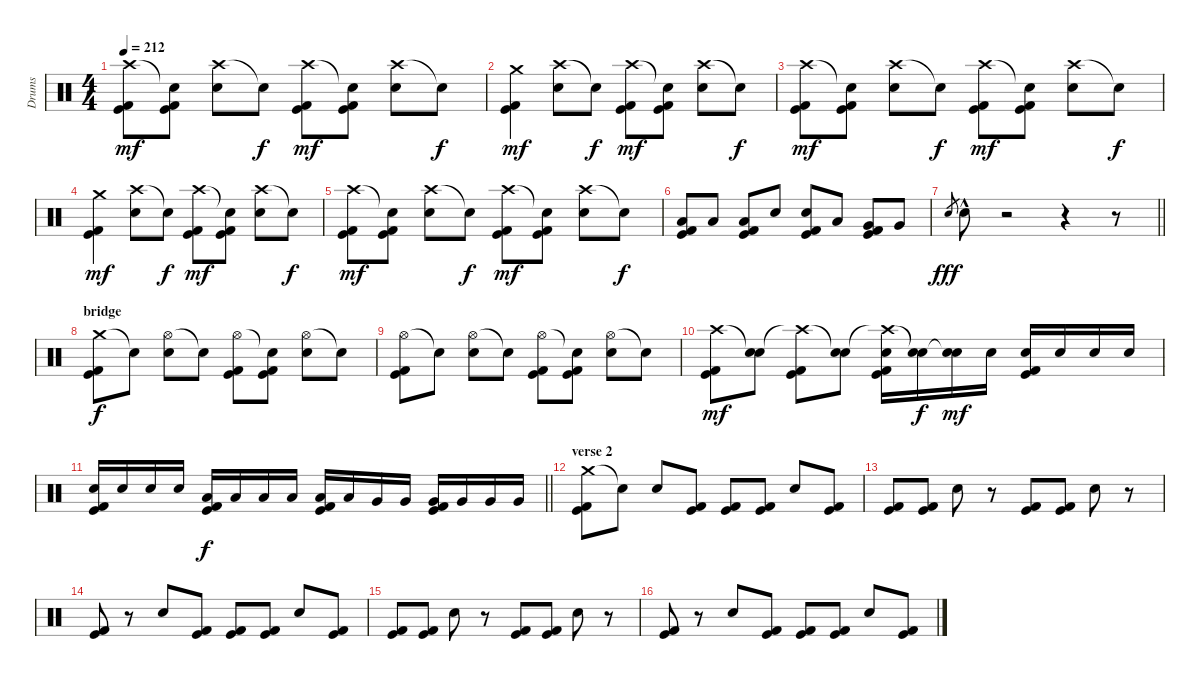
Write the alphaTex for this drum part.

\track ("Drums" "Drums") {instrument percussion}
\staff {score}
\articulation defaults
\ts (4 4)
\tempo 212
\clef neutral
\ks c
("Crash high (hit)" "Kick (hit)" "Kick (hit) 2").8{dy mf} ("Snare (hit)"{t} "Kick (hit)" "Kick (hit) 2").8 ("Crash high (hit)" "Snare (hit) 2").8 "Snare (hit)"{t}.8{dy f} ("Crash high (hit)" "Kick (hit)" "Kick (hit) 2").8{dy mf} ("Snare (hit)"{t} "Kick (hit)" "Kick (hit) 2").8 ("Crash high (hit)" "Snare (hit) 2").8 "Snare (hit)"{t}.8{dy f} |
("Crash medium (hit)" "Kick (hit)" "Kick (hit) 2").4{dy mf} ("Crash high (hit)" "Snare (hit) 2").8 "Snare (hit)"{t}.8{dy f} ("Crash high (hit)" "Kick (hit)" "Kick (hit) 2").8{dy mf} ("Snare (hit)"{t} "Kick (hit)" "Kick (hit) 2").8 ("Crash high (hit)" "Snare (hit) 2").8 "Snare (hit)"{t}.8{dy f} |
("Crash high (hit)" "Kick (hit)" "Kick (hit) 2").8{dy mf} ("Snare (hit)"{t} "Kick (hit)" "Kick (hit) 2").8 ("Crash high (hit)" "Snare (hit) 2").8 "Snare (hit)"{t}.8{dy f} ("Crash high (hit)" "Kick (hit)" "Kick (hit) 2").8{dy mf} ("Snare (hit)"{t} "Kick (hit)" "Kick (hit) 2").8 ("Crash high (hit)" "Snare (hit) 2").8 "Snare (hit)"{t}.8{dy f} |
("Crash medium (hit)" "Kick (hit)" "Kick (hit) 2").4{dy mf} ("Crash high (hit)" "Snare (hit) 2").8 "Snare (hit)"{t}.8{dy f} ("Crash high (hit)" "Kick (hit)" "Kick (hit) 2").8{dy mf} ("Snare (hit)"{t} "Kick (hit)" "Kick (hit) 2").8 ("Crash high (hit)" "Snare (hit) 2").8 "Snare (hit)"{t}.8{dy f} |
("Crash high (hit)" "Kick (hit)" "Kick (hit) 2").8{dy mf} ("Snare (hit)"{t} "Kick (hit)" "Kick (hit) 2").8 ("Crash high (hit)" "Snare (hit) 2").8 "Snare (hit)"{t}.8{dy f} ("Crash high (hit)" "Kick (hit)" "Kick (hit) 2").8{dy mf} ("Snare (hit)"{t} "Kick (hit)" "Kick (hit) 2").8 ("Crash high (hit)" "Snare (hit) 2").8 "Snare (hit)"{t}.8{dy f} |
("Low Tom (hit)" "Kick (hit)" "Kick (hit) 2").8 "Low Tom (hit)".8 ("Low Tom (hit)" "Kick (hit)" "Kick (hit) 2").8 "Snare (hit) 2".8 ("Snare (hit) 2" "Kick (hit)" "Kick (hit) 2").8 "Low Tom (hit)".8 ("Very Low Tom (hit)" "Kick (hit)" "Kick (hit) 2").8 "Very Low Tom (hit)".8 |
\barLineRight lightlight "Snare (hit) 2".8{gr dy fff} "Snare (hit) 2"{hac}.8
r.2 r.4 r.8 |
\section ("" "bridge")
("Crash medium (hit)" "Kick (hit)" "Kick (hit) 2").8{dy f} "Snare (hit)"{t}.8 ("Hi-Hat (open)" "Snare (hit) 2").8 "Snare (hit)"{t}.8 ("Hi-Hat (open)" "Kick (hit)" "Kick (hit) 2").8 ("Snare (hit)"{t} "Kick (hit)" "Kick (hit) 2").8 ("Hi-Hat (open)" "Snare (hit) 2").8 "Snare (hit)"{t}.8 |
("Hi-Hat (open)" "Kick (hit)" "Kick (hit) 2").8 "Snare (hit)"{t}.8 ("Hi-Hat (open)" "Snare (hit) 2").8 "Snare (hit)"{t}.8 ("Hi-Hat (open)" "Kick (hit)" "Kick (hit) 2").8 ("Snare (hit)"{t} "Kick (hit)" "Kick (hit) 2").8 ("Hi-Hat (open)" "Snare (hit) 2").8 "Snare (hit)"{t}.8 |
("Crash high (hit)" "Kick (hit)" "Kick (hit) 2").8{dy mf} ("Snare (hit)"{t} "Snare (hit) 2").8 ("Crash high (hit)"{t} "Kick (hit)" "Kick (hit) 2").8 ("Snare (hit)"{t} "Snare (hit) 2").8 ("Crash high (hit)"{t} "Snare (hit) 2" "Kick (hit)" "Kick (hit) 2").16 ("Snare (hit)"{t} "Snare (hit) 2").16{dy f} ("Snare (hit)"{t} "Snare (hit) 2").16{dy mf} "Snare (hit) 2".16 ("Snare (hit) 2" "Kick (hit)" "Kick (hit) 2").16 "Snare (hit) 2".16 "Snare (hit) 2".16 "Snare (hit) 2".16 |
\barLineRight lightlight
("Snare (hit) 2" "Kick (hit)" "Kick (hit) 2").16 "Snare (hit) 2".16 "Snare (hit) 2".16 "Snare (hit) 2".16 ("Low Tom (hit)" "Kick (hit)" "Kick (hit) 2").16{dy f} "Low Tom (hit)".16 "Low Tom (hit)".16 "Low Tom (hit)".16 ("Low Tom (hit)" "Kick (hit)" "Kick (hit) 2").16 "Low Tom (hit)".16 "Very Low Tom (hit)".16 "Very Low Tom (hit)".16 ("Very Low Tom (hit)" "Kick (hit)" "Kick (hit) 2").16 "Very Low Tom (hit)".16 "Very Low Tom (hit)".16 "Very Low Tom (hit)".16 |
\section ("" "verse 2")
("Crash medium (hit)" "Kick (hit)" "Kick (hit) 2").8 "Snare (hit)"{t}.8 "Snare (hit) 2".8 ("Kick (hit)" "Kick (hit) 2").8 ("Kick (hit)" "Kick (hit) 2").8 ("Kick (hit)" "Kick (hit) 2").8 "Snare (hit) 2".8 ("Kick (hit)" "Kick (hit) 2").8 |
("Kick (hit)" "Kick (hit) 2").8 ("Kick (hit)" "Kick (hit) 2").8 "Snare (hit) 2".8 r.8 ("Kick (hit)" "Kick (hit) 2").8 ("Kick (hit)" "Kick (hit) 2").8 "Snare (hit) 2".8 r.8 |
("Kick (hit)" "Kick (hit) 2").8 r.8 "Snare (hit) 2".8 ("Kick (hit)" "Kick (hit) 2").8 ("Kick (hit)" "Kick (hit) 2").8 ("Kick (hit)" "Kick (hit) 2").8 "Snare (hit) 2".8 ("Kick (hit)" "Kick (hit) 2").8 |
("Kick (hit)" "Kick (hit) 2").8 ("Kick (hit)" "Kick (hit) 2").8 "Snare (hit) 2".8 r.8 ("Kick (hit)" "Kick (hit) 2").8 ("Kick (hit)" "Kick (hit) 2").8 "Snare (hit) 2".8 r.8 |
("Kick (hit)" "Kick (hit) 2").8 r.8 "Snare (hit) 2".8 ("Kick (hit)" "Kick (hit) 2").8 ("Kick (hit)" "Kick (hit) 2").8 ("Kick (hit)" "Kick (hit) 2").8 "Snare (hit) 2".8 ("Kick (hit)" "Kick (hit) 2").8
